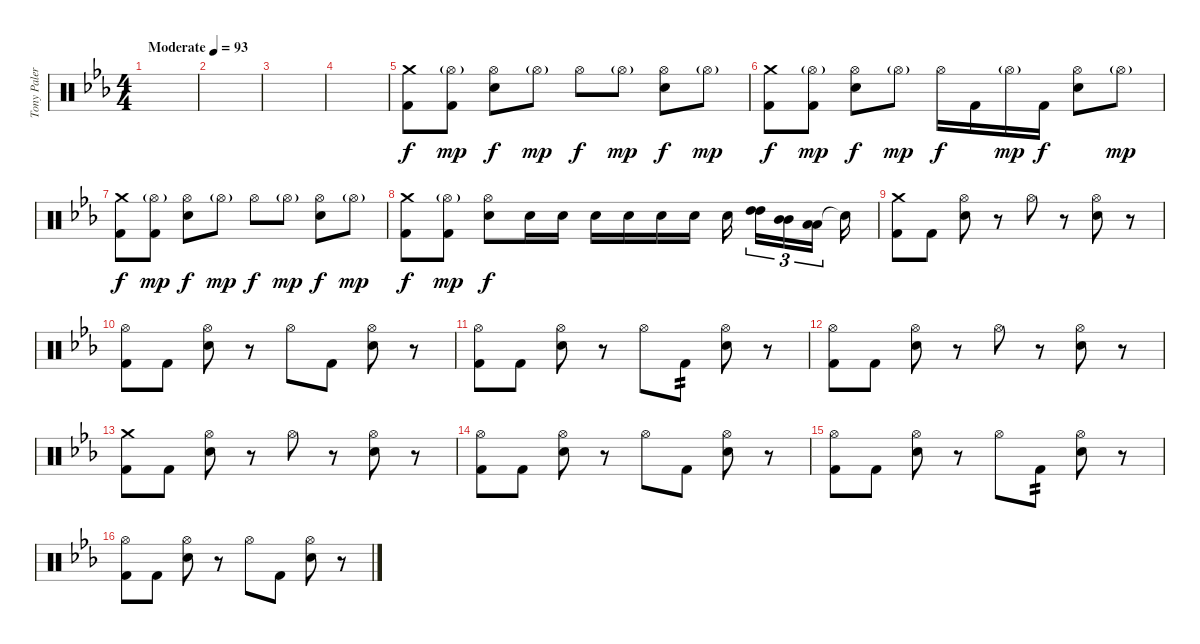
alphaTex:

\track ("Tony Palermo" "Tony Paler") {instrument percussion}
\staff {score}
\articulation defaults
\ts (4 4)
\tempo (93 "Moderate")
\clef neutral
\ks cminor
|
|
|
|
("Crash medium (hit)" "Kick (hit) 2").8 ("Hi-Hat (open)"{g} "Kick (hit) 2").8{dy mp} ("Hi-Hat (open)" "Electric Snare (hit)").8{dy f} "Hi-Hat (open)"{g}.8{dy mp} "Hi-Hat (open)".8{dy f} "Hi-Hat (open)"{g}.8{dy mp} ("Hi-Hat (open)" "Electric Snare (hit)").8{dy f} "Hi-Hat (open)"{g}.8{dy mp} |
("Crash medium (hit)" "Kick (hit) 2").8{dy f} ("Hi-Hat (open)"{g} "Kick (hit) 2").8{dy mp} ("Hi-Hat (open)" "Electric Snare (hit)").8{dy f} "Hi-Hat (open)"{g}.8{dy mp} "Hi-Hat (open)".16{dy f} "Kick (hit) 2".16 "Hi-Hat (open)"{g}.16{dy mp} "Kick (hit) 2".16{dy f} ("Hi-Hat (open)" "Electric Snare (hit)").8 "Hi-Hat (open)"{g}.8{dy mp} |
("Crash medium (hit)" "Kick (hit) 2").8{dy f} ("Hi-Hat (open)"{g} "Kick (hit) 2").8{dy mp} ("Hi-Hat (open)" "Electric Snare (hit)").8{dy f} "Hi-Hat (open)"{g}.8{dy mp} "Hi-Hat (open)".8{dy f} "Hi-Hat (open)"{g}.8{dy mp} ("Hi-Hat (open)" "Electric Snare (hit)").8{dy f} "Hi-Hat (open)"{g}.8{dy mp} |
("Crash medium (hit)" "Kick (hit) 2").8{dy f} ("Hi-Hat (open)"{g} "Kick (hit) 2").8{dy mp} ("Hi-Hat (open)" "Electric Snare (hit)").8{dy f} "Electric Snare (hit)".16 "Electric Snare (hit)".16 "Electric Snare (hit)".16 "Electric Snare (hit)".16 "Electric Snare (hit)".16 "Electric Snare (hit)".16 "Electric Snare (hit)".16{beam splitsecondary} ("High Tom (hit)" "High Tom (hit)").16{tu (3 2)} ("Mid Tom (hit)" "Mid Tom (hit)").16{tu (3 2)} ("Low Tom (hit)" "Low Tom (hit)").16{tu (3 2) beam splitsecondary} "Snare (hit)"{t}.16 |
("Crash medium (hit)" "Kick (hit) 2").8 "Kick (hit) 2".8 ("Hi-Hat (open)" "Electric Snare (hit)").8 r.8 "Hi-Hat (open)".8 r.8 ("Hi-Hat (open)" "Electric Snare (hit)").8 r.8 |
("Hi-Hat (open)" "Kick (hit) 2").8 "Kick (hit) 2".8 ("Hi-Hat (open)" "Electric Snare (hit)").8 r.8 "Hi-Hat (open)".8 "Kick (hit) 2".8 ("Hi-Hat (open)" "Electric Snare (hit)").8 r.8 |
("Hi-Hat (open)" "Kick (hit) 2").8 "Kick (hit) 2".8 ("Hi-Hat (open)" "Electric Snare (hit)").8 r.8 "Hi-Hat (open)".8 "Kick (hit) 2".8{tp 2} ("Hi-Hat (open)" "Electric Snare (hit)").8 r.8 |
("Hi-Hat (open)" "Kick (hit) 2").8 "Kick (hit) 2".8 ("Hi-Hat (open)" "Electric Snare (hit)").8 r.8 "Hi-Hat (open)".8 r.8 ("Hi-Hat (open)" "Electric Snare (hit)").8 r.8 |
("Crash medium (hit)" "Kick (hit) 2").8 "Kick (hit) 2".8 ("Hi-Hat (open)" "Electric Snare (hit)").8 r.8 "Hi-Hat (open)".8 r.8 ("Hi-Hat (open)" "Electric Snare (hit)").8 r.8 |
("Hi-Hat (open)" "Kick (hit) 2").8 "Kick (hit) 2".8 ("Hi-Hat (open)" "Electric Snare (hit)").8 r.8 "Hi-Hat (open)".8 "Kick (hit) 2".8 ("Hi-Hat (open)" "Electric Snare (hit)").8 r.8 |
("Hi-Hat (open)" "Kick (hit) 2").8 "Kick (hit) 2".8 ("Hi-Hat (open)" "Electric Snare (hit)").8 r.8 "Hi-Hat (open)".8 "Kick (hit) 2".8{tp 2} ("Hi-Hat (open)" "Electric Snare (hit)").8 r.8 |
("Hi-Hat (open)" "Kick (hit) 2").8 "Kick (hit) 2".8 ("Hi-Hat (open)" "Electric Snare (hit)").8 r.8 "Hi-Hat (open)".8 "Kick (hit) 2".8 ("Hi-Hat (open)" "Electric Snare (hit)").8 r.8
